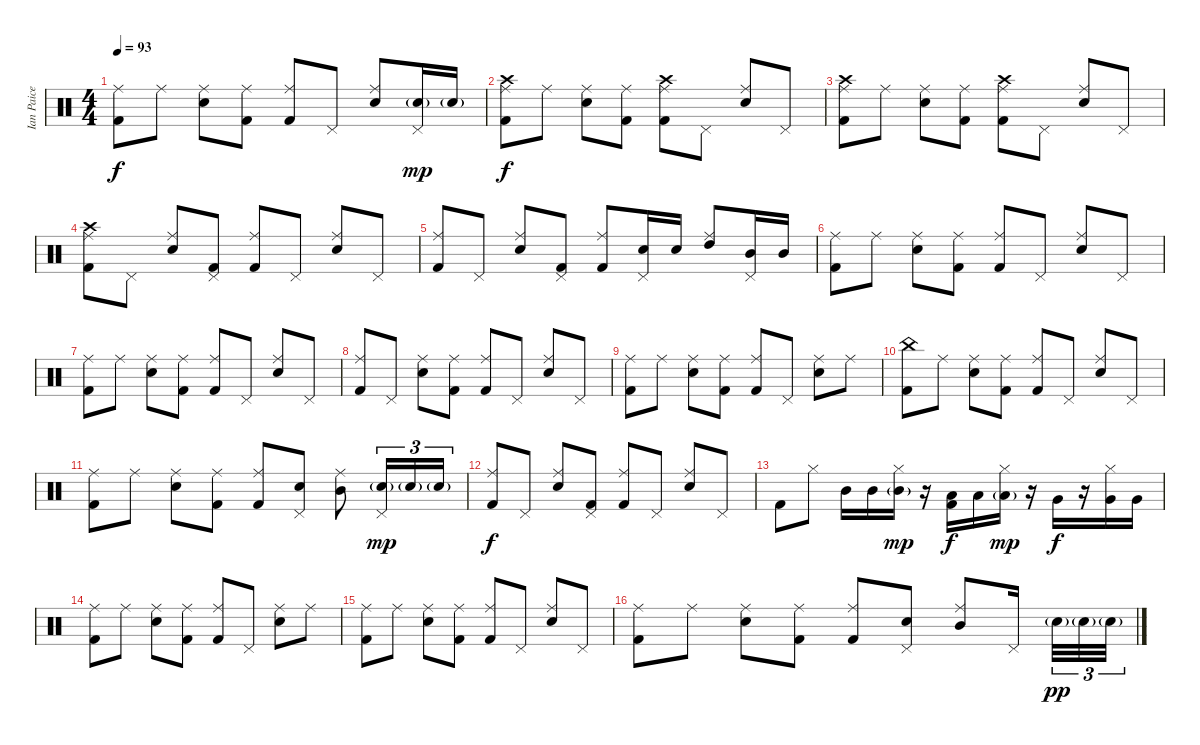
\track ("Ian Paice (drums)" "Ian Paice ") {instrument percussion}
\staff {score}
\articulation defaults
\ts (4 4)
\tempo 93
\clef neutral
\ks c
("Ride (middle)" "Kick (hit) 2").8{dy f} "Ride (middle)".8 ("Ride (middle)" "Electric Snare (hit)").8 ("Ride (middle)" "Kick (hit) 2").8 ("Ride (middle)" "Kick (hit) 2").8 "Pedal Hi-Hat (hit)".8 ("Ride (middle)" "Electric Snare (hit)").8 ("Pedal Hi-Hat (hit)" "Electric Snare (hit)"{g}).16{dy mp} "Electric Snare (hit)"{g}.16 |
("Crash high (hit)" "Ride (middle)" "Kick (hit) 2").8{dy f} "Ride (middle)".8 ("Ride (middle)" "Electric Snare (hit)").8 ("Ride (middle)" "Kick (hit) 2").8 ("Crash high (hit)" "Ride (middle)" "Kick (hit) 2").8 "Pedal Hi-Hat (hit)".8 ("Ride (middle)" "Electric Snare (hit)").8 "Pedal Hi-Hat (hit)".8 |
("Crash high (hit)" "Ride (middle)" "Kick (hit) 2").8 "Ride (middle)".8 ("Ride (middle)" "Electric Snare (hit)").8 ("Ride (middle)" "Kick (hit) 2").8 ("Crash high (hit)" "Ride (middle)" "Kick (hit) 2").8 "Pedal Hi-Hat (hit)".8 ("Ride (middle)" "Electric Snare (hit)").8 "Pedal Hi-Hat (hit)".8 |
("Crash high (hit)" "Ride (middle)" "Kick (hit) 2").8 "Pedal Hi-Hat (hit)".8 ("Ride (middle)" "Electric Snare (hit)").8 ("Pedal Hi-Hat (hit)" "Kick (hit) 2").8 ("Ride (middle)" "Kick (hit) 2").8 "Pedal Hi-Hat (hit)".8 ("Ride (middle)" "Electric Snare (hit)").8 "Pedal Hi-Hat (hit)".8 |
("Ride (middle)" "Kick (hit) 2").8 "Pedal Hi-Hat (hit)".8 ("Ride (middle)" "Electric Snare (hit)").8 ("Pedal Hi-Hat (hit)" "Kick (hit) 2").8 ("Ride (middle)" "Kick (hit) 2").8 ("Pedal Hi-Hat (hit)" "Electric Snare (hit)").16 "Electric Snare (hit)".16 ("Ride (middle)" "High Tom (hit)").8 ("Pedal Hi-Hat (hit)" "Mid Tom (hit)").16 "Mid Tom (hit)".16 |
("Ride (middle)" "Kick (hit) 2").8 "Ride (middle)".8 ("Ride (middle)" "Electric Snare (hit)").8 ("Ride (middle)" "Kick (hit) 2").8 ("Ride (middle)" "Kick (hit) 2").8 "Pedal Hi-Hat (hit)".8 ("Ride (middle)" "Electric Snare (hit)").8 "Pedal Hi-Hat (hit)".8 |
("Ride (middle)" "Kick (hit) 2").8 "Ride (middle)".8 ("Ride (middle)" "Electric Snare (hit)").8 ("Ride (middle)" "Kick (hit) 2").8 ("Ride (middle)" "Kick (hit) 2").8 "Pedal Hi-Hat (hit)".8 ("Ride (middle)" "Electric Snare (hit)").8 "Pedal Hi-Hat (hit)".8 |
("Ride (middle)" "Kick (hit) 2").8 "Pedal Hi-Hat (hit)".8 ("Ride (middle)" "Electric Snare (hit)").8 ("Ride (middle)" "Kick (hit) 2").8 ("Ride (middle)" "Kick (hit) 2").8 "Pedal Hi-Hat (hit)".8 ("Ride (middle)" "Electric Snare (hit)").8 "Pedal Hi-Hat (hit)".8 |
("Ride (middle)" "Kick (hit) 2").8 "Ride (middle)".8 ("Ride (middle)" "Electric Snare (hit)").8 ("Ride (middle)" "Kick (hit) 2").8 ("Ride (middle)" "Kick (hit) 2").8 "Pedal Hi-Hat (hit)".8 ("Ride (middle)" "Electric Snare (hit)").8 "Ride (middle)".8 |
("China (hit)" "Kick (hit) 2").8 "Ride (middle)".8 ("Ride (middle)" "Electric Snare (hit)").8 ("Ride (middle)" "Kick (hit) 2").8 ("Ride (middle)" "Kick (hit) 2").8 "Pedal Hi-Hat (hit)".8 ("Ride (middle)" "Electric Snare (hit)").8 "Pedal Hi-Hat (hit)".8 |
("Ride (middle)" "Kick (hit) 2").8 "Ride (middle)".8 ("Ride (middle)" "Electric Snare (hit)").8 ("Ride (middle)" "Kick (hit) 2").8 ("Ride (middle)" "Kick (hit) 2").8 ("Pedal Hi-Hat (hit)" "Electric Snare (hit)").8 ("Ride (middle)" "Mid Tom (hit)").8 ("Pedal Hi-Hat (hit)" "Electric Snare (hit)"{g}).16{tu (3 2) dy mp} "Electric Snare (hit)"{g}.16{tu (3 2)} "Electric Snare (hit)"{g}.16{tu (3 2)} |
("Ride (middle)" "Kick (hit) 2").8{dy f} "Pedal Hi-Hat (hit)".8 ("Ride (middle)" "Electric Snare (hit)").8 ("Pedal Hi-Hat (hit)" "Kick (hit) 2").8 ("Ride (middle)" "Kick (hit) 2").8 "Pedal Hi-Hat (hit)".8 ("Ride (middle)" "Electric Snare (hit)").8 "Pedal Hi-Hat (hit)".8 |
"Kick (hit) 2".8 "Hi-Hat (closed)".8 "Mid Tom (hit)".16 "Mid Tom (hit)".16 ("Hi-Hat (closed)" "Mid Tom (hit)"{g}).16{dy mp} r.16 ("Low Tom (hit)" "Kick (hit) 2").16{dy f} "Low Tom (hit)".16 ("Hi-Hat (closed)" "Low Tom (hit)"{g}).16{dy mp} r.16 "Very Low Tom (hit)".16{dy f} r.16 ("Hi-Hat (closed)" "Very Low Tom (hit)").16 "Very Low Tom (hit)".16 |
("Ride (middle)" "Kick (hit) 2").8 "Ride (middle)".8 ("Ride (middle)" "Electric Snare (hit)").8 ("Ride (middle)" "Kick (hit) 2").8 ("Ride (middle)" "Kick (hit) 2").8 "Pedal Hi-Hat (hit)".8 ("Ride (middle)" "Electric Snare (hit)").8 "Ride (middle)".8 |
("Ride (middle)" "Kick (hit) 2").8 "Ride (middle)".8 ("Ride (middle)" "Electric Snare (hit)").8 ("Ride (middle)" "Kick (hit) 2").8 ("Ride (middle)" "Kick (hit) 2").8 "Pedal Hi-Hat (hit)".8 ("Ride (middle)" "Electric Snare (hit)").8 "Pedal Hi-Hat (hit)".8 |
("Ride (middle)" "Kick (hit) 2").8 "Ride (middle)".8 ("Ride (middle)" "Electric Snare (hit)").8 ("Ride (middle)" "Kick (hit) 2").8 ("Ride (middle)" "Kick (hit) 2").8 ("Pedal Hi-Hat (hit)" "Electric Snare (hit)").8 ("Ride (middle)" "Mid Tom (hit)").8 "Pedal Hi-Hat (hit)".16 "Electric Snare (hit)"{g}.32{tu (3 2) dy pp} "Electric Snare (hit)"{g}.32{tu (3 2)} "Electric Snare (hit)"{g}.32{tu (3 2)}
